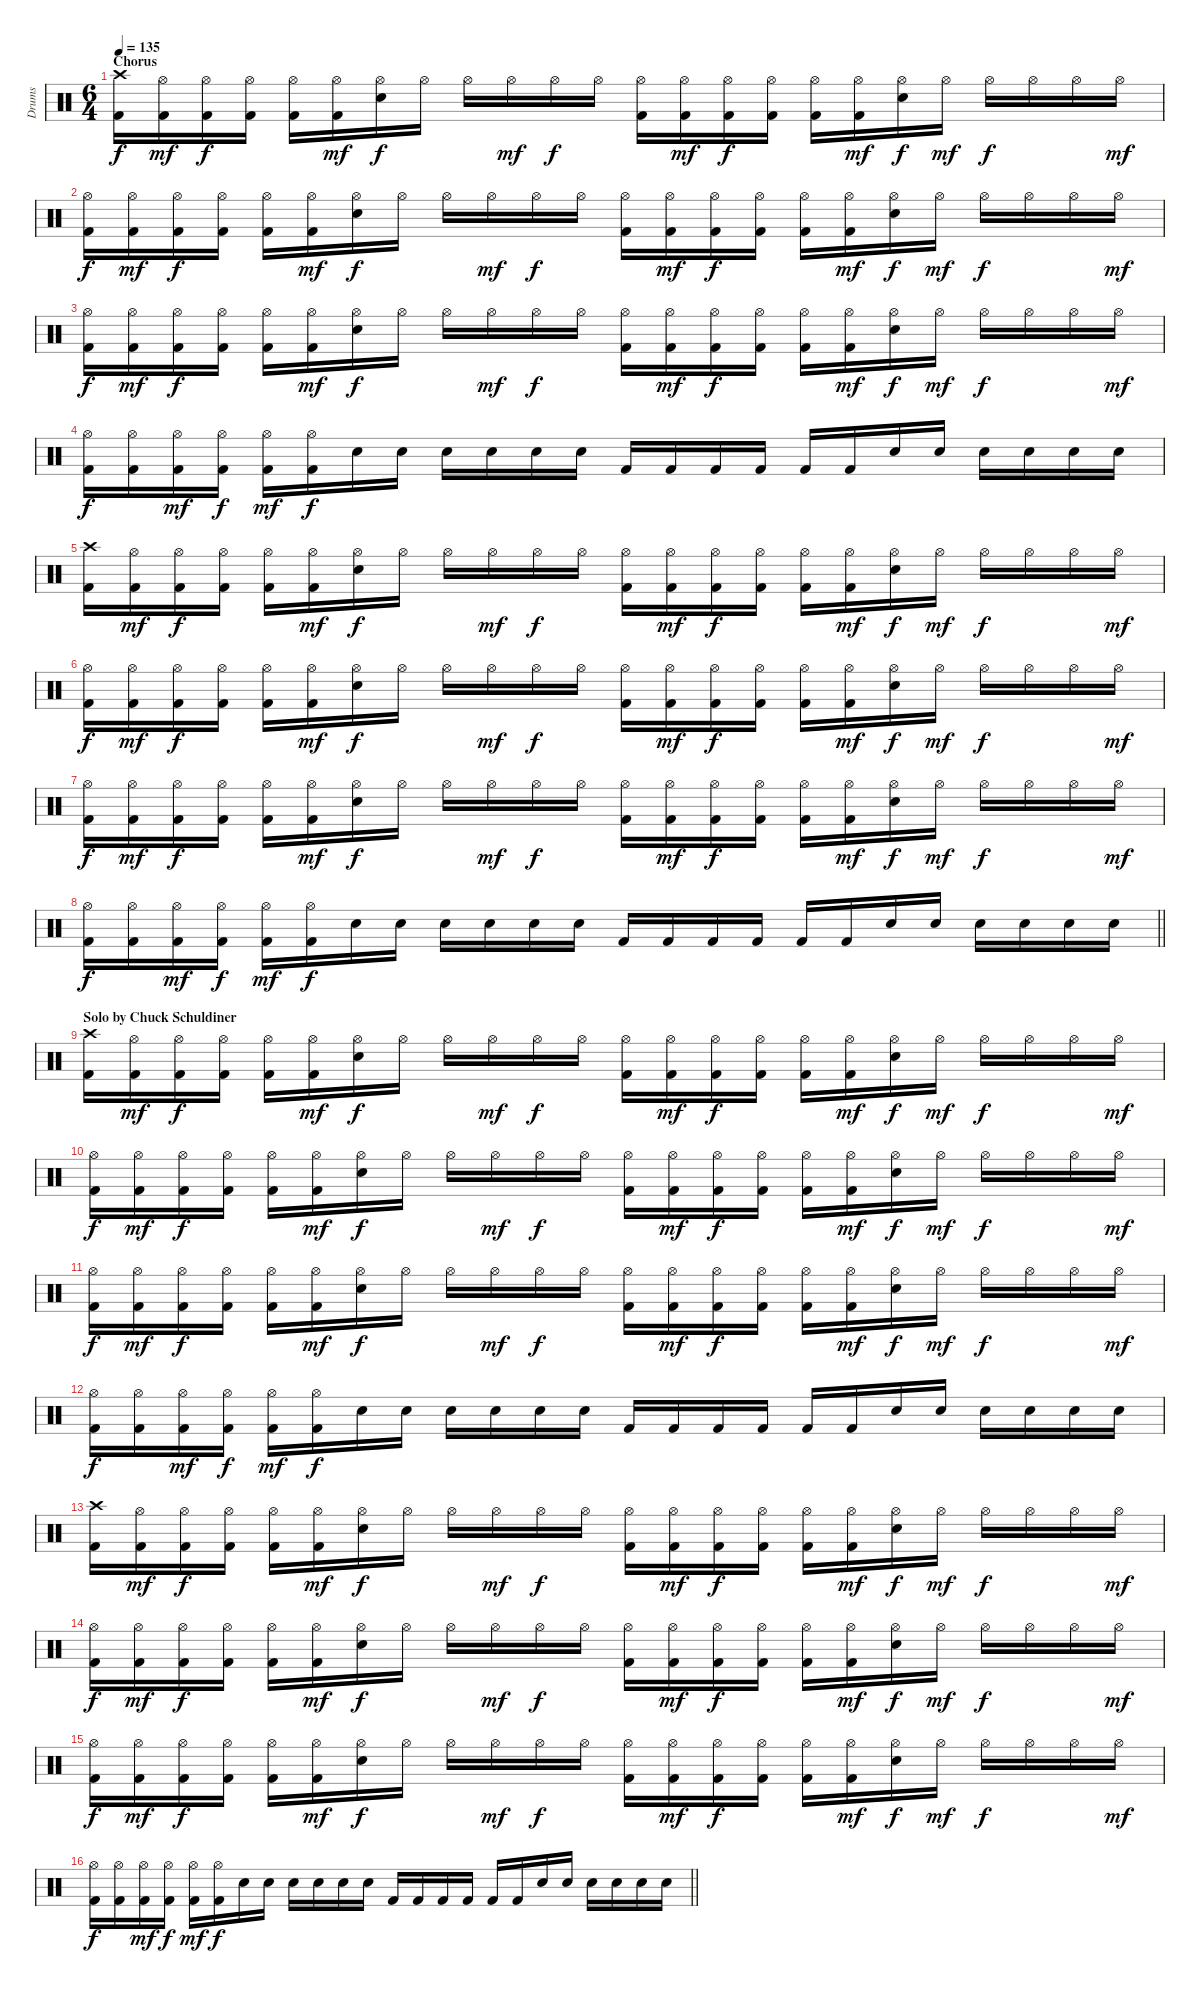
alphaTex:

\track ("Drums" "Drums") {instrument percussion}
\staff {score}
\articulation defaults
\ts (6 4)
\section ("" "Chorus")
\tempo 135
\clef neutral
\ks c
("Crash high (hit)" "Kick (hit) 2").16{dy f} ("Hi-Hat (open)" "Kick (hit) 2").16{dy mf} ("Hi-Hat (open)" "Kick (hit) 2").16{dy f} ("Hi-Hat (open)" "Kick (hit) 2").16 ("Hi-Hat (open)" "Kick (hit) 2").16 ("Hi-Hat (open)" "Kick (hit) 2").16{dy mf} ("Hi-Hat (open)" "Snare (hit) 2").16{dy f} "Hi-Hat (open)".16 "Hi-Hat (open)".16 "Hi-Hat (open)".16{dy mf} "Hi-Hat (open)".16{dy f} "Hi-Hat (open)".16 ("Hi-Hat (open)" "Kick (hit) 2").16 ("Hi-Hat (open)" "Kick (hit) 2").16{dy mf} ("Hi-Hat (open)" "Kick (hit) 2").16{dy f} ("Hi-Hat (open)" "Kick (hit) 2").16 ("Hi-Hat (open)" "Kick (hit) 2").16 ("Hi-Hat (open)" "Kick (hit) 2").16{dy mf} ("Hi-Hat (open)" "Snare (hit) 2").16{dy f} "Hi-Hat (open)".16{dy mf} "Hi-Hat (open)".16{dy f} "Hi-Hat (open)".16 "Hi-Hat (open)".16 "Hi-Hat (open)".16{dy mf} |
("Hi-Hat (open)" "Kick (hit) 2").16{dy f} ("Hi-Hat (open)" "Kick (hit) 2").16{dy mf} ("Hi-Hat (open)" "Kick (hit) 2").16{dy f} ("Hi-Hat (open)" "Kick (hit) 2").16 ("Hi-Hat (open)" "Kick (hit) 2").16 ("Hi-Hat (open)" "Kick (hit) 2").16{dy mf} ("Hi-Hat (open)" "Snare (hit) 2").16{dy f} "Hi-Hat (open)".16 "Hi-Hat (open)".16 "Hi-Hat (open)".16{dy mf} "Hi-Hat (open)".16{dy f} "Hi-Hat (open)".16 ("Hi-Hat (open)" "Kick (hit) 2").16 ("Hi-Hat (open)" "Kick (hit) 2").16{dy mf} ("Hi-Hat (open)" "Kick (hit) 2").16{dy f} ("Hi-Hat (open)" "Kick (hit) 2").16 ("Hi-Hat (open)" "Kick (hit) 2").16 ("Hi-Hat (open)" "Kick (hit) 2").16{dy mf} ("Hi-Hat (open)" "Snare (hit) 2").16{dy f} "Hi-Hat (open)".16{dy mf} "Hi-Hat (open)".16{dy f} "Hi-Hat (open)".16 "Hi-Hat (open)".16 "Hi-Hat (open)".16{dy mf} |
("Hi-Hat (open)" "Kick (hit) 2").16{dy f} ("Hi-Hat (open)" "Kick (hit) 2").16{dy mf} ("Hi-Hat (open)" "Kick (hit) 2").16{dy f} ("Hi-Hat (open)" "Kick (hit) 2").16 ("Hi-Hat (open)" "Kick (hit) 2").16 ("Hi-Hat (open)" "Kick (hit) 2").16{dy mf} ("Hi-Hat (open)" "Snare (hit) 2").16{dy f} "Hi-Hat (open)".16 "Hi-Hat (open)".16 "Hi-Hat (open)".16{dy mf} "Hi-Hat (open)".16{dy f} "Hi-Hat (open)".16 ("Hi-Hat (open)" "Kick (hit) 2").16 ("Hi-Hat (open)" "Kick (hit) 2").16{dy mf} ("Hi-Hat (open)" "Kick (hit) 2").16{dy f} ("Hi-Hat (open)" "Kick (hit) 2").16 ("Hi-Hat (open)" "Kick (hit) 2").16 ("Hi-Hat (open)" "Kick (hit) 2").16{dy mf} ("Hi-Hat (open)" "Snare (hit) 2").16{dy f} "Hi-Hat (open)".16{dy mf} "Hi-Hat (open)".16{dy f} "Hi-Hat (open)".16 "Hi-Hat (open)".16 "Hi-Hat (open)".16{dy mf} |
("Hi-Hat (open)" "Kick (hit) 2").16{dy f} ("Hi-Hat (open)" "Kick (hit) 2").16 ("Hi-Hat (open)" "Kick (hit) 2").16{dy mf} ("Hi-Hat (open)" "Kick (hit) 2").16{dy f} ("Hi-Hat (open)" "Kick (hit) 2").16{dy mf} ("Hi-Hat (open)" "Kick (hit) 2").16{dy f} "Snare (hit) 2".16 "Snare (hit) 2".16 "Snare (hit) 2".16 "Snare (hit) 2".16 "Snare (hit) 2".16 "Snare (hit) 2".16 "Kick (hit) 2".16 "Kick (hit) 2".16 "Kick (hit) 2".16 "Kick (hit) 2".16 "Kick (hit) 2".16 "Kick (hit) 2".16 "Snare (hit) 2".16 "Snare (hit) 2".16 "Snare (hit) 2".16 "Snare (hit) 2".16 "Snare (hit) 2".16 "Snare (hit) 2".16 |
("Crash high (hit)" "Kick (hit) 2").16 ("Hi-Hat (open)" "Kick (hit) 2").16{dy mf} ("Hi-Hat (open)" "Kick (hit) 2").16{dy f} ("Hi-Hat (open)" "Kick (hit) 2").16 ("Hi-Hat (open)" "Kick (hit) 2").16 ("Hi-Hat (open)" "Kick (hit) 2").16{dy mf} ("Hi-Hat (open)" "Snare (hit) 2").16{dy f} "Hi-Hat (open)".16 "Hi-Hat (open)".16 "Hi-Hat (open)".16{dy mf} "Hi-Hat (open)".16{dy f} "Hi-Hat (open)".16 ("Hi-Hat (open)" "Kick (hit) 2").16 ("Hi-Hat (open)" "Kick (hit) 2").16{dy mf} ("Hi-Hat (open)" "Kick (hit) 2").16{dy f} ("Hi-Hat (open)" "Kick (hit) 2").16 ("Hi-Hat (open)" "Kick (hit) 2").16 ("Hi-Hat (open)" "Kick (hit) 2").16{dy mf} ("Hi-Hat (open)" "Snare (hit) 2").16{dy f} "Hi-Hat (open)".16{dy mf} "Hi-Hat (open)".16{dy f} "Hi-Hat (open)".16 "Hi-Hat (open)".16 "Hi-Hat (open)".16{dy mf} |
("Hi-Hat (open)" "Kick (hit) 2").16{dy f} ("Hi-Hat (open)" "Kick (hit) 2").16{dy mf} ("Hi-Hat (open)" "Kick (hit) 2").16{dy f} ("Hi-Hat (open)" "Kick (hit) 2").16 ("Hi-Hat (open)" "Kick (hit) 2").16 ("Hi-Hat (open)" "Kick (hit) 2").16{dy mf} ("Hi-Hat (open)" "Snare (hit) 2").16{dy f} "Hi-Hat (open)".16 "Hi-Hat (open)".16 "Hi-Hat (open)".16{dy mf} "Hi-Hat (open)".16{dy f} "Hi-Hat (open)".16 ("Hi-Hat (open)" "Kick (hit) 2").16 ("Hi-Hat (open)" "Kick (hit) 2").16{dy mf} ("Hi-Hat (open)" "Kick (hit) 2").16{dy f} ("Hi-Hat (open)" "Kick (hit) 2").16 ("Hi-Hat (open)" "Kick (hit) 2").16 ("Hi-Hat (open)" "Kick (hit) 2").16{dy mf} ("Hi-Hat (open)" "Snare (hit) 2").16{dy f} "Hi-Hat (open)".16{dy mf} "Hi-Hat (open)".16{dy f} "Hi-Hat (open)".16 "Hi-Hat (open)".16 "Hi-Hat (open)".16{dy mf} |
("Hi-Hat (open)" "Kick (hit) 2").16{dy f} ("Hi-Hat (open)" "Kick (hit) 2").16{dy mf} ("Hi-Hat (open)" "Kick (hit) 2").16{dy f} ("Hi-Hat (open)" "Kick (hit) 2").16 ("Hi-Hat (open)" "Kick (hit) 2").16 ("Hi-Hat (open)" "Kick (hit) 2").16{dy mf} ("Hi-Hat (open)" "Snare (hit) 2").16{dy f} "Hi-Hat (open)".16 "Hi-Hat (open)".16 "Hi-Hat (open)".16{dy mf} "Hi-Hat (open)".16{dy f} "Hi-Hat (open)".16 ("Hi-Hat (open)" "Kick (hit) 2").16 ("Hi-Hat (open)" "Kick (hit) 2").16{dy mf} ("Hi-Hat (open)" "Kick (hit) 2").16{dy f} ("Hi-Hat (open)" "Kick (hit) 2").16 ("Hi-Hat (open)" "Kick (hit) 2").16 ("Hi-Hat (open)" "Kick (hit) 2").16{dy mf} ("Hi-Hat (open)" "Snare (hit) 2").16{dy f} "Hi-Hat (open)".16{dy mf} "Hi-Hat (open)".16{dy f} "Hi-Hat (open)".16 "Hi-Hat (open)".16 "Hi-Hat (open)".16{dy mf} |
\barLineRight lightlight
("Hi-Hat (open)" "Kick (hit) 2").16{dy f} ("Hi-Hat (open)" "Kick (hit) 2").16 ("Hi-Hat (open)" "Kick (hit) 2").16{dy mf} ("Hi-Hat (open)" "Kick (hit) 2").16{dy f} ("Hi-Hat (open)" "Kick (hit) 2").16{dy mf} ("Hi-Hat (open)" "Kick (hit) 2").16{dy f} "Snare (hit) 2".16 "Snare (hit) 2".16 "Snare (hit) 2".16 "Snare (hit) 2".16 "Snare (hit) 2".16 "Snare (hit) 2".16 "Kick (hit) 2".16 "Kick (hit) 2".16 "Kick (hit) 2".16 "Kick (hit) 2".16 "Kick (hit) 2".16 "Kick (hit) 2".16 "Snare (hit) 2".16 "Snare (hit) 2".16 "Snare (hit) 2".16 "Snare (hit) 2".16 "Snare (hit) 2".16 "Snare (hit) 2".16 |
\section ("" "Solo by Chuck Schuldiner")
("Crash high (hit)" "Kick (hit) 2").16 ("Hi-Hat (open)" "Kick (hit) 2").16{dy mf} ("Hi-Hat (open)" "Kick (hit) 2").16{dy f} ("Hi-Hat (open)" "Kick (hit) 2").16 ("Hi-Hat (open)" "Kick (hit) 2").16 ("Hi-Hat (open)" "Kick (hit) 2").16{dy mf} ("Hi-Hat (open)" "Snare (hit) 2").16{dy f} "Hi-Hat (open)".16 "Hi-Hat (open)".16 "Hi-Hat (open)".16{dy mf} "Hi-Hat (open)".16{dy f} "Hi-Hat (open)".16 ("Hi-Hat (open)" "Kick (hit) 2").16 ("Hi-Hat (open)" "Kick (hit) 2").16{dy mf} ("Hi-Hat (open)" "Kick (hit) 2").16{dy f} ("Hi-Hat (open)" "Kick (hit) 2").16 ("Hi-Hat (open)" "Kick (hit) 2").16 ("Hi-Hat (open)" "Kick (hit) 2").16{dy mf} ("Hi-Hat (open)" "Snare (hit) 2").16{dy f} "Hi-Hat (open)".16{dy mf} "Hi-Hat (open)".16{dy f} "Hi-Hat (open)".16 "Hi-Hat (open)".16 "Hi-Hat (open)".16{dy mf} |
("Hi-Hat (open)" "Kick (hit) 2").16{dy f} ("Hi-Hat (open)" "Kick (hit) 2").16{dy mf} ("Hi-Hat (open)" "Kick (hit) 2").16{dy f} ("Hi-Hat (open)" "Kick (hit) 2").16 ("Hi-Hat (open)" "Kick (hit) 2").16 ("Hi-Hat (open)" "Kick (hit) 2").16{dy mf} ("Hi-Hat (open)" "Snare (hit) 2").16{dy f} "Hi-Hat (open)".16 "Hi-Hat (open)".16 "Hi-Hat (open)".16{dy mf} "Hi-Hat (open)".16{dy f} "Hi-Hat (open)".16 ("Hi-Hat (open)" "Kick (hit) 2").16 ("Hi-Hat (open)" "Kick (hit) 2").16{dy mf} ("Hi-Hat (open)" "Kick (hit) 2").16{dy f} ("Hi-Hat (open)" "Kick (hit) 2").16 ("Hi-Hat (open)" "Kick (hit) 2").16 ("Hi-Hat (open)" "Kick (hit) 2").16{dy mf} ("Hi-Hat (open)" "Snare (hit) 2").16{dy f} "Hi-Hat (open)".16{dy mf} "Hi-Hat (open)".16{dy f} "Hi-Hat (open)".16 "Hi-Hat (open)".16 "Hi-Hat (open)".16{dy mf} |
("Hi-Hat (open)" "Kick (hit) 2").16{dy f} ("Hi-Hat (open)" "Kick (hit) 2").16{dy mf} ("Hi-Hat (open)" "Kick (hit) 2").16{dy f} ("Hi-Hat (open)" "Kick (hit) 2").16 ("Hi-Hat (open)" "Kick (hit) 2").16 ("Hi-Hat (open)" "Kick (hit) 2").16{dy mf} ("Hi-Hat (open)" "Snare (hit) 2").16{dy f} "Hi-Hat (open)".16 "Hi-Hat (open)".16 "Hi-Hat (open)".16{dy mf} "Hi-Hat (open)".16{dy f} "Hi-Hat (open)".16 ("Hi-Hat (open)" "Kick (hit) 2").16 ("Hi-Hat (open)" "Kick (hit) 2").16{dy mf} ("Hi-Hat (open)" "Kick (hit) 2").16{dy f} ("Hi-Hat (open)" "Kick (hit) 2").16 ("Hi-Hat (open)" "Kick (hit) 2").16 ("Hi-Hat (open)" "Kick (hit) 2").16{dy mf} ("Hi-Hat (open)" "Snare (hit) 2").16{dy f} "Hi-Hat (open)".16{dy mf} "Hi-Hat (open)".16{dy f} "Hi-Hat (open)".16 "Hi-Hat (open)".16 "Hi-Hat (open)".16{dy mf} |
("Hi-Hat (open)" "Kick (hit) 2").16{dy f} ("Hi-Hat (open)" "Kick (hit) 2").16 ("Hi-Hat (open)" "Kick (hit) 2").16{dy mf} ("Hi-Hat (open)" "Kick (hit) 2").16{dy f} ("Hi-Hat (open)" "Kick (hit) 2").16{dy mf} ("Hi-Hat (open)" "Kick (hit) 2").16{dy f} "Snare (hit) 2".16 "Snare (hit) 2".16 "Snare (hit) 2".16 "Snare (hit) 2".16 "Snare (hit) 2".16 "Snare (hit) 2".16 "Kick (hit) 2".16 "Kick (hit) 2".16 "Kick (hit) 2".16 "Kick (hit) 2".16 "Kick (hit) 2".16 "Kick (hit) 2".16 "Snare (hit) 2".16 "Snare (hit) 2".16 "Snare (hit) 2".16 "Snare (hit) 2".16 "Snare (hit) 2".16 "Snare (hit) 2".16 |
("Crash high (hit)" "Kick (hit) 2").16 ("Hi-Hat (open)" "Kick (hit) 2").16{dy mf} ("Hi-Hat (open)" "Kick (hit) 2").16{dy f} ("Hi-Hat (open)" "Kick (hit) 2").16 ("Hi-Hat (open)" "Kick (hit) 2").16 ("Hi-Hat (open)" "Kick (hit) 2").16{dy mf} ("Hi-Hat (open)" "Snare (hit) 2").16{dy f} "Hi-Hat (open)".16 "Hi-Hat (open)".16 "Hi-Hat (open)".16{dy mf} "Hi-Hat (open)".16{dy f} "Hi-Hat (open)".16 ("Hi-Hat (open)" "Kick (hit) 2").16 ("Hi-Hat (open)" "Kick (hit) 2").16{dy mf} ("Hi-Hat (open)" "Kick (hit) 2").16{dy f} ("Hi-Hat (open)" "Kick (hit) 2").16 ("Hi-Hat (open)" "Kick (hit) 2").16 ("Hi-Hat (open)" "Kick (hit) 2").16{dy mf} ("Hi-Hat (open)" "Snare (hit) 2").16{dy f} "Hi-Hat (open)".16{dy mf} "Hi-Hat (open)".16{dy f} "Hi-Hat (open)".16 "Hi-Hat (open)".16 "Hi-Hat (open)".16{dy mf} |
("Hi-Hat (open)" "Kick (hit) 2").16{dy f} ("Hi-Hat (open)" "Kick (hit) 2").16{dy mf} ("Hi-Hat (open)" "Kick (hit) 2").16{dy f} ("Hi-Hat (open)" "Kick (hit) 2").16 ("Hi-Hat (open)" "Kick (hit) 2").16 ("Hi-Hat (open)" "Kick (hit) 2").16{dy mf} ("Hi-Hat (open)" "Snare (hit) 2").16{dy f} "Hi-Hat (open)".16 "Hi-Hat (open)".16 "Hi-Hat (open)".16{dy mf} "Hi-Hat (open)".16{dy f} "Hi-Hat (open)".16 ("Hi-Hat (open)" "Kick (hit) 2").16 ("Hi-Hat (open)" "Kick (hit) 2").16{dy mf} ("Hi-Hat (open)" "Kick (hit) 2").16{dy f} ("Hi-Hat (open)" "Kick (hit) 2").16 ("Hi-Hat (open)" "Kick (hit) 2").16 ("Hi-Hat (open)" "Kick (hit) 2").16{dy mf} ("Hi-Hat (open)" "Snare (hit) 2").16{dy f} "Hi-Hat (open)".16{dy mf} "Hi-Hat (open)".16{dy f} "Hi-Hat (open)".16 "Hi-Hat (open)".16 "Hi-Hat (open)".16{dy mf} |
("Hi-Hat (open)" "Kick (hit) 2").16{dy f} ("Hi-Hat (open)" "Kick (hit) 2").16{dy mf} ("Hi-Hat (open)" "Kick (hit) 2").16{dy f} ("Hi-Hat (open)" "Kick (hit) 2").16 ("Hi-Hat (open)" "Kick (hit) 2").16 ("Hi-Hat (open)" "Kick (hit) 2").16{dy mf} ("Hi-Hat (open)" "Snare (hit) 2").16{dy f} "Hi-Hat (open)".16 "Hi-Hat (open)".16 "Hi-Hat (open)".16{dy mf} "Hi-Hat (open)".16{dy f} "Hi-Hat (open)".16 ("Hi-Hat (open)" "Kick (hit) 2").16 ("Hi-Hat (open)" "Kick (hit) 2").16{dy mf} ("Hi-Hat (open)" "Kick (hit) 2").16{dy f} ("Hi-Hat (open)" "Kick (hit) 2").16 ("Hi-Hat (open)" "Kick (hit) 2").16 ("Hi-Hat (open)" "Kick (hit) 2").16{dy mf} ("Hi-Hat (open)" "Snare (hit) 2").16{dy f} "Hi-Hat (open)".16{dy mf} "Hi-Hat (open)".16{dy f} "Hi-Hat (open)".16 "Hi-Hat (open)".16 "Hi-Hat (open)".16{dy mf} |
\barLineRight lightlight
("Hi-Hat (open)" "Kick (hit) 2").16{dy f} ("Hi-Hat (open)" "Kick (hit) 2").16 ("Hi-Hat (open)" "Kick (hit) 2").16{dy mf} ("Hi-Hat (open)" "Kick (hit) 2").16{dy f} ("Hi-Hat (open)" "Kick (hit) 2").16{dy mf} ("Hi-Hat (open)" "Kick (hit) 2").16{dy f} "Snare (hit) 2".16 "Snare (hit) 2".16 "Snare (hit) 2".16 "Snare (hit) 2".16 "Snare (hit) 2".16 "Snare (hit) 2".16 "Kick (hit) 2".16 "Kick (hit) 2".16 "Kick (hit) 2".16 "Kick (hit) 2".16 "Kick (hit) 2".16 "Kick (hit) 2".16 "Snare (hit) 2".16 "Snare (hit) 2".16 "Snare (hit) 2".16 "Snare (hit) 2".16 "Snare (hit) 2".16 "Snare (hit) 2".16
